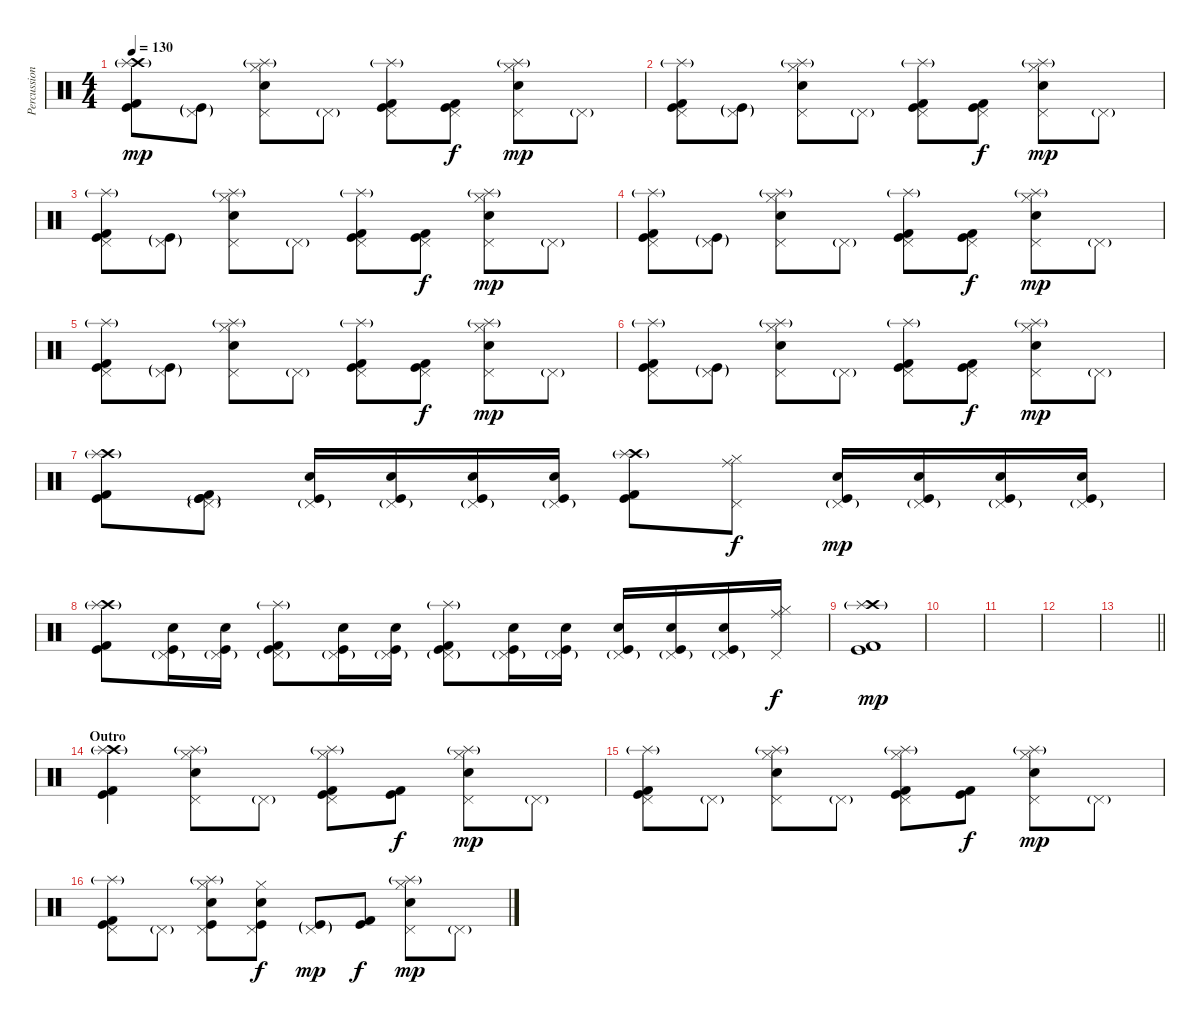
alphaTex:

\track ("Percussion(Wendell Garcia)" "Percussion") {instrument percussion}
\staff {score}
\articulation defaults
\ts (4 4)
\tempo 130
\clef neutral
\ks c
("Crash high (hit)" "Splash (hit)"{g} "Kick (hit)" "Kick (hit) 2").8{dy mp} ("Pedal Hi-Hat (hit)"{g} "Kick (hit)"{g}).8 ("Pedal Hi-Hat (hit)" "Hi-Hat (closed)" "Splash (hit)"{g} "Electric Snare (hit)").8 "Pedal Hi-Hat (hit)"{g}.8 ("Pedal Hi-Hat (hit)" "Splash (hit)"{g} "Kick (hit)" "Kick (hit) 2").8 ("Pedal Hi-Hat (hit)" "Kick (hit)" "Kick (hit) 2").8{dy f} ("Pedal Hi-Hat (hit)" "Hi-Hat (closed)" "Splash (hit)"{g} "Electric Snare (hit)").8{dy mp} "Pedal Hi-Hat (hit)"{g}.8 |
("Pedal Hi-Hat (hit)" "Splash (hit)"{g} "Kick (hit)" "Kick (hit) 2").8 ("Pedal Hi-Hat (hit)"{g} "Kick (hit)"{g}).8 ("Pedal Hi-Hat (hit)" "Hi-Hat (closed)" "Splash (hit)"{g} "Electric Snare (hit)").8 "Pedal Hi-Hat (hit)"{g}.8 ("Pedal Hi-Hat (hit)" "Splash (hit)"{g} "Kick (hit)" "Kick (hit) 2").8 ("Pedal Hi-Hat (hit)" "Kick (hit)" "Kick (hit) 2").8{dy f} ("Pedal Hi-Hat (hit)" "Hi-Hat (closed)" "Splash (hit)"{g} "Electric Snare (hit)").8{dy mp} "Pedal Hi-Hat (hit)"{g}.8 |
("Pedal Hi-Hat (hit)" "Splash (hit)"{g} "Kick (hit)" "Kick (hit) 2").8 ("Pedal Hi-Hat (hit)"{g} "Kick (hit)"{g}).8 ("Pedal Hi-Hat (hit)" "Hi-Hat (closed)" "Splash (hit)"{g} "Electric Snare (hit)").8 "Pedal Hi-Hat (hit)"{g}.8 ("Pedal Hi-Hat (hit)" "Splash (hit)"{g} "Kick (hit)" "Kick (hit) 2").8 ("Pedal Hi-Hat (hit)" "Kick (hit)" "Kick (hit) 2").8{dy f} ("Pedal Hi-Hat (hit)" "Hi-Hat (closed)" "Splash (hit)"{g} "Electric Snare (hit)").8{dy mp} "Pedal Hi-Hat (hit)"{g}.8 |
("Pedal Hi-Hat (hit)" "Splash (hit)"{g} "Kick (hit)" "Kick (hit) 2").8 ("Pedal Hi-Hat (hit)"{g} "Kick (hit)"{g}).8 ("Pedal Hi-Hat (hit)" "Hi-Hat (closed)" "Splash (hit)"{g} "Electric Snare (hit)").8 "Pedal Hi-Hat (hit)"{g}.8 ("Pedal Hi-Hat (hit)" "Splash (hit)"{g} "Kick (hit)" "Kick (hit) 2").8 ("Pedal Hi-Hat (hit)" "Kick (hit)" "Kick (hit) 2").8{dy f} ("Pedal Hi-Hat (hit)" "Hi-Hat (closed)" "Splash (hit)"{g} "Electric Snare (hit)").8{dy mp} "Pedal Hi-Hat (hit)"{g}.8 |
("Pedal Hi-Hat (hit)" "Splash (hit)"{g} "Kick (hit)" "Kick (hit) 2").8 ("Pedal Hi-Hat (hit)"{g} "Kick (hit)"{g}).8 ("Pedal Hi-Hat (hit)" "Hi-Hat (closed)" "Splash (hit)"{g} "Electric Snare (hit)").8 "Pedal Hi-Hat (hit)"{g}.8 ("Pedal Hi-Hat (hit)" "Splash (hit)"{g} "Kick (hit)" "Kick (hit) 2").8 ("Pedal Hi-Hat (hit)" "Kick (hit)" "Kick (hit) 2").8{dy f} ("Pedal Hi-Hat (hit)" "Hi-Hat (closed)" "Splash (hit)"{g} "Electric Snare (hit)").8{dy mp} "Pedal Hi-Hat (hit)"{g}.8 |
("Pedal Hi-Hat (hit)" "Splash (hit)"{g} "Kick (hit)" "Kick (hit) 2").8 ("Pedal Hi-Hat (hit)"{g} "Kick (hit)"{g}).8 ("Pedal Hi-Hat (hit)" "Hi-Hat (closed)" "Splash (hit)"{g} "Electric Snare (hit)").8 "Pedal Hi-Hat (hit)"{g}.8 ("Pedal Hi-Hat (hit)" "Splash (hit)"{g} "Kick (hit)" "Kick (hit) 2").8 ("Pedal Hi-Hat (hit)" "Kick (hit)" "Kick (hit) 2").8{dy f} ("Pedal Hi-Hat (hit)" "Hi-Hat (closed)" "Splash (hit)"{g} "Electric Snare (hit)").8{dy mp} "Pedal Hi-Hat (hit)"{g}.8 |
("Crash high (hit)" "Splash (hit)"{g} "Kick (hit)" "Kick (hit) 2").8 ("Pedal Hi-Hat (hit)"{g} "Kick (hit)"{g} "Kick (hit)" "Kick (hit) 2").8 ("Pedal Hi-Hat (hit)"{g} "Electric Snare (hit)" "Kick (hit)").16 ("Pedal Hi-Hat (hit)"{g} "Electric Snare (hit)" "Kick (hit)").16 ("Pedal Hi-Hat (hit)"{g} "Electric Snare (hit)" "Kick (hit)").16 ("Pedal Hi-Hat (hit)"{g} "Electric Snare (hit)" "Kick (hit)").16 ("Crash high (hit)"{g} "Splash (hit)"{g} "Kick (hit)" "Kick (hit) 2").8 ("Pedal Hi-Hat (hit)" "Hi-Hat (closed)" "Ride (middle)").8{dy f} ("Pedal Hi-Hat (hit)"{g} "Electric Snare (hit)" "Kick (hit)").16{dy mp} ("Pedal Hi-Hat (hit)"{g} "Electric Snare (hit)" "Kick (hit)").16 ("Pedal Hi-Hat (hit)"{g} "Electric Snare (hit)" "Kick (hit)").16 ("Pedal Hi-Hat (hit)"{g} "Electric Snare (hit)" "Kick (hit)").16 |
("Crash high (hit)" "Splash (hit)"{g} "Kick (hit)" "Kick (hit) 2").8 ("Pedal Hi-Hat (hit)"{g} "Electric Snare (hit)" "Kick (hit)").16 ("Pedal Hi-Hat (hit)"{g} "Electric Snare (hit)" "Kick (hit)").16 ("Pedal Hi-Hat (hit)"{g} "Splash (hit)"{g} "Kick (hit)" "Kick (hit) 2").8 ("Pedal Hi-Hat (hit)"{g} "Electric Snare (hit)" "Kick (hit)").16 ("Pedal Hi-Hat (hit)"{g} "Electric Snare (hit)" "Kick (hit)").16 ("Pedal Hi-Hat (hit)"{g} "Splash (hit)"{g} "Kick (hit)" "Kick (hit) 2").8 ("Pedal Hi-Hat (hit)"{g} "Electric Snare (hit)" "Kick (hit)").16 ("Pedal Hi-Hat (hit)"{g} "Electric Snare (hit)" "Kick (hit)").16 ("Pedal Hi-Hat (hit)"{g} "Electric Snare (hit)" "Kick (hit)").16 ("Pedal Hi-Hat (hit)"{g} "Electric Snare (hit)" "Kick (hit)").16 ("Pedal Hi-Hat (hit)"{g} "Electric Snare (hit)" "Kick (hit)").16 ("Pedal Hi-Hat (hit)" "Hi-Hat (closed)" "Ride (middle)").16{dy f} |
("Crash high (hit)"{g} "Splash (hit)"{g} "Kick (hit)" "Kick (hit) 2").1{dy mp} |
|
|
|
\barLineRight lightlight
|
\section ("" "Outro")
("Crash high (hit)" "Splash (hit)"{g} "Kick (hit)" "Kick (hit) 2").4 ("Electric Snare (hit)" "Splash (hit)"{g} "Pedal Hi-Hat (hit)" "Hi-Hat (closed)").8 "Pedal Hi-Hat (hit)"{g}.8 ("Kick (hit) 2" "Splash (hit)"{g} "Pedal Hi-Hat (hit)" "Hi-Hat (closed)" "Kick (hit)").8 ("Kick (hit) 2" "Kick (hit)").8{dy f} ("Electric Snare (hit)" "Splash (hit)"{g} "Pedal Hi-Hat (hit)" "Hi-Hat (closed)").8{dy mp} "Pedal Hi-Hat (hit)"{g}.8 |
("Pedal Hi-Hat (hit)" "Splash (hit)"{g} "Kick (hit)" "Kick (hit) 2").8 "Pedal Hi-Hat (hit)"{g}.8 ("Electric Snare (hit)" "Splash (hit)"{g} "Pedal Hi-Hat (hit)" "Hi-Hat (closed)").8 "Pedal Hi-Hat (hit)"{g}.8 ("Kick (hit) 2" "Splash (hit)"{g} "Pedal Hi-Hat (hit)" "Hi-Hat (closed)" "Kick (hit)").8 ("Kick (hit) 2" "Kick (hit)").8{dy f} ("Electric Snare (hit)" "Splash (hit)"{g} "Pedal Hi-Hat (hit)" "Hi-Hat (closed)").8{dy mp} "Pedal Hi-Hat (hit)"{g}.8 |
("Pedal Hi-Hat (hit)" "Splash (hit)"{g} "Kick (hit)" "Kick (hit) 2").8 "Pedal Hi-Hat (hit)"{g}.8 ("Electric Snare (hit)" "Kick (hit)" "Pedal Hi-Hat (hit)" "Hi-Hat (closed)" "Splash (hit)"{g}).8 ("Electric Snare (hit)" "Kick (hit)" "Pedal Hi-Hat (hit)" "Hi-Hat (closed)").8{dy f} ("Kick (hit)"{g} "Pedal Hi-Hat (hit)"{g}).8{dy mp} ("Kick (hit) 2" "Kick (hit)").8{dy f} ("Electric Snare (hit)" "Splash (hit)"{g} "Pedal Hi-Hat (hit)" "Hi-Hat (closed)").8{dy mp} "Pedal Hi-Hat (hit)"{g}.8
